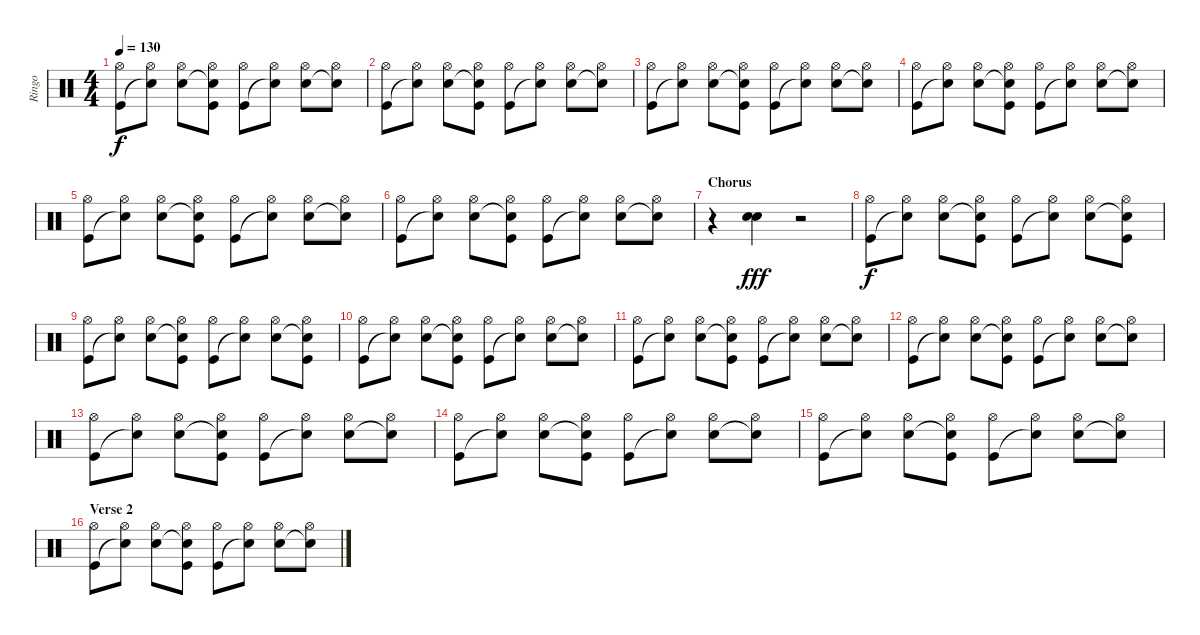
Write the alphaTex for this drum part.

\track ("Ringo" "Ringo") {instrument percussion}
\staff {score}
\articulation defaults
\ts (4 4)
\tempo 130
\clef neutral
\ks c
("Hi-Hat (open)" "Kick (hit)").8{dy f} ("Hi-Hat (open)" "Snare (hit)"{t}).8 ("Hi-Hat (open)" "Snare (hit) 2").8 ("Hi-Hat (open)" "Snare (hit)"{t} "Kick (hit)").8 ("Hi-Hat (open)" "Kick (hit)").8 ("Hi-Hat (open)" "Snare (hit)"{t}).8 ("Hi-Hat (open)" "Snare (hit) 2").8 ("Hi-Hat (open)" "Snare (hit)"{t}).8 |
("Hi-Hat (open)" "Kick (hit)").8 ("Hi-Hat (open)" "Snare (hit)"{t}).8 ("Hi-Hat (open)" "Snare (hit) 2").8 ("Hi-Hat (open)" "Snare (hit)"{t} "Kick (hit)").8 ("Hi-Hat (open)" "Kick (hit)").8 ("Hi-Hat (open)" "Snare (hit)"{t}).8 ("Hi-Hat (open)" "Snare (hit) 2").8 ("Hi-Hat (open)" "Snare (hit)"{t}).8 |
("Hi-Hat (open)" "Kick (hit)").8 ("Hi-Hat (open)" "Snare (hit)"{t}).8 ("Hi-Hat (open)" "Snare (hit) 2").8 ("Hi-Hat (open)" "Snare (hit)"{t} "Kick (hit)").8 ("Hi-Hat (open)" "Kick (hit)").8 ("Hi-Hat (open)" "Snare (hit)"{t}).8 ("Hi-Hat (open)" "Snare (hit) 2").8 ("Hi-Hat (open)" "Snare (hit)"{t}).8 |
("Hi-Hat (open)" "Kick (hit)").8 ("Hi-Hat (open)" "Snare (hit)"{t}).8 ("Hi-Hat (open)" "Snare (hit) 2").8 ("Hi-Hat (open)" "Snare (hit)"{t} "Kick (hit)").8 ("Hi-Hat (open)" "Kick (hit)").8 ("Hi-Hat (open)" "Snare (hit)"{t}).8 ("Hi-Hat (open)" "Snare (hit) 2").8 ("Hi-Hat (open)" "Snare (hit)"{t}).8 |
("Hi-Hat (open)" "Kick (hit)").8 ("Hi-Hat (open)" "Snare (hit)"{t}).8 ("Hi-Hat (open)" "Snare (hit) 2").8 ("Hi-Hat (open)" "Snare (hit)"{t} "Kick (hit)").8 ("Hi-Hat (open)" "Kick (hit)").8 ("Hi-Hat (open)" "Snare (hit)"{t}).8 ("Hi-Hat (open)" "Snare (hit) 2").8 ("Hi-Hat (open)" "Snare (hit)"{t}).8 |
("Hi-Hat (open)" "Kick (hit)").8 ("Hi-Hat (open)" "Snare (hit)"{t}).8 ("Hi-Hat (open)" "Snare (hit) 2").8 ("Hi-Hat (open)" "Snare (hit)"{t} "Kick (hit)").8 ("Hi-Hat (open)" "Kick (hit)").8 ("Hi-Hat (open)" "Snare (hit)"{t}).8 ("Hi-Hat (open)" "Snare (hit) 2").8 ("Hi-Hat (open)" "Snare (hit)"{t}).8 |
\section ("" "Chorus")
r.4 ("Electric Snare (hit)" "Snare (hit) 2").4{dy fff} r.2 |
("Hi-Hat (open)" "Kick (hit)").8{dy f} ("Hi-Hat (open)" "Snare (hit)"{t}).8 ("Hi-Hat (open)" "Snare (hit) 2").8 ("Hi-Hat (open)" "Snare (hit)"{t} "Kick (hit)").8 ("Hi-Hat (open)" "Kick (hit)").8 ("Hi-Hat (open)" "Snare (hit)"{t}).8 ("Hi-Hat (open)" "Snare (hit) 2").8 ("Hi-Hat (open)" "Snare (hit)"{t} "Kick (hit)").8 |
("Hi-Hat (open)" "Kick (hit)").8 ("Hi-Hat (open)" "Snare (hit)"{t}).8 ("Hi-Hat (open)" "Snare (hit) 2").8 ("Hi-Hat (open)" "Snare (hit)"{t} "Kick (hit)").8 ("Hi-Hat (open)" "Kick (hit)").8 ("Hi-Hat (open)" "Snare (hit)"{t}).8 ("Hi-Hat (open)" "Snare (hit) 2").8 ("Hi-Hat (open)" "Snare (hit)"{t} "Kick (hit)").8 |
("Hi-Hat (open)" "Kick (hit)").8 ("Hi-Hat (open)" "Snare (hit)"{t}).8 ("Hi-Hat (open)" "Snare (hit) 2").8 ("Hi-Hat (open)" "Snare (hit)"{t} "Kick (hit)").8 ("Hi-Hat (open)" "Kick (hit)").8 ("Hi-Hat (open)" "Snare (hit)"{t}).8 ("Hi-Hat (open)" "Snare (hit) 2").8 ("Hi-Hat (open)" "Snare (hit)"{t}).8 |
("Hi-Hat (open)" "Kick (hit)").8 ("Hi-Hat (open)" "Snare (hit)"{t}).8 ("Hi-Hat (open)" "Snare (hit) 2").8 ("Hi-Hat (open)" "Snare (hit)"{t} "Kick (hit)").8 ("Hi-Hat (open)" "Kick (hit)").8 ("Hi-Hat (open)" "Snare (hit)"{t}).8 ("Hi-Hat (open)" "Snare (hit) 2").8 ("Hi-Hat (open)" "Snare (hit)"{t}).8 |
("Hi-Hat (open)" "Kick (hit)").8 ("Hi-Hat (open)" "Snare (hit)"{t}).8 ("Hi-Hat (open)" "Snare (hit) 2").8 ("Hi-Hat (open)" "Snare (hit)"{t} "Kick (hit)").8 ("Hi-Hat (open)" "Kick (hit)").8 ("Hi-Hat (open)" "Snare (hit)"{t}).8 ("Hi-Hat (open)" "Snare (hit) 2").8 ("Hi-Hat (open)" "Snare (hit)"{t}).8 |
("Hi-Hat (open)" "Kick (hit)").8 ("Hi-Hat (open)" "Snare (hit)"{t}).8 ("Hi-Hat (open)" "Snare (hit) 2").8 ("Hi-Hat (open)" "Snare (hit)"{t} "Kick (hit)").8 ("Hi-Hat (open)" "Kick (hit)").8 ("Hi-Hat (open)" "Snare (hit)"{t}).8 ("Hi-Hat (open)" "Snare (hit) 2").8 ("Hi-Hat (open)" "Snare (hit)"{t}).8 |
("Hi-Hat (open)" "Kick (hit)").8 ("Hi-Hat (open)" "Snare (hit)"{t}).8 ("Hi-Hat (open)" "Snare (hit) 2").8 ("Hi-Hat (open)" "Snare (hit)"{t} "Kick (hit)").8 ("Hi-Hat (open)" "Kick (hit)").8 ("Hi-Hat (open)" "Snare (hit)"{t}).8 ("Hi-Hat (open)" "Snare (hit) 2").8 ("Hi-Hat (open)" "Snare (hit)"{t}).8 |
("Hi-Hat (open)" "Kick (hit)").8 ("Hi-Hat (open)" "Snare (hit)"{t}).8 ("Hi-Hat (open)" "Snare (hit) 2").8 ("Hi-Hat (open)" "Snare (hit)"{t} "Kick (hit)").8 ("Hi-Hat (open)" "Kick (hit)").8 ("Hi-Hat (open)" "Snare (hit)"{t}).8 ("Hi-Hat (open)" "Snare (hit) 2").8 ("Hi-Hat (open)" "Snare (hit)"{t}).8 |
\section ("" "Verse 2")
("Hi-Hat (open)" "Kick (hit)").8 ("Hi-Hat (open)" "Snare (hit)"{t}).8 ("Hi-Hat (open)" "Snare (hit) 2").8 ("Hi-Hat (open)" "Snare (hit)"{t} "Kick (hit)").8 ("Hi-Hat (open)" "Kick (hit)").8 ("Hi-Hat (open)" "Snare (hit)"{t}).8 ("Hi-Hat (open)" "Snare (hit) 2").8 ("Hi-Hat (open)" "Snare (hit)"{t}).8
